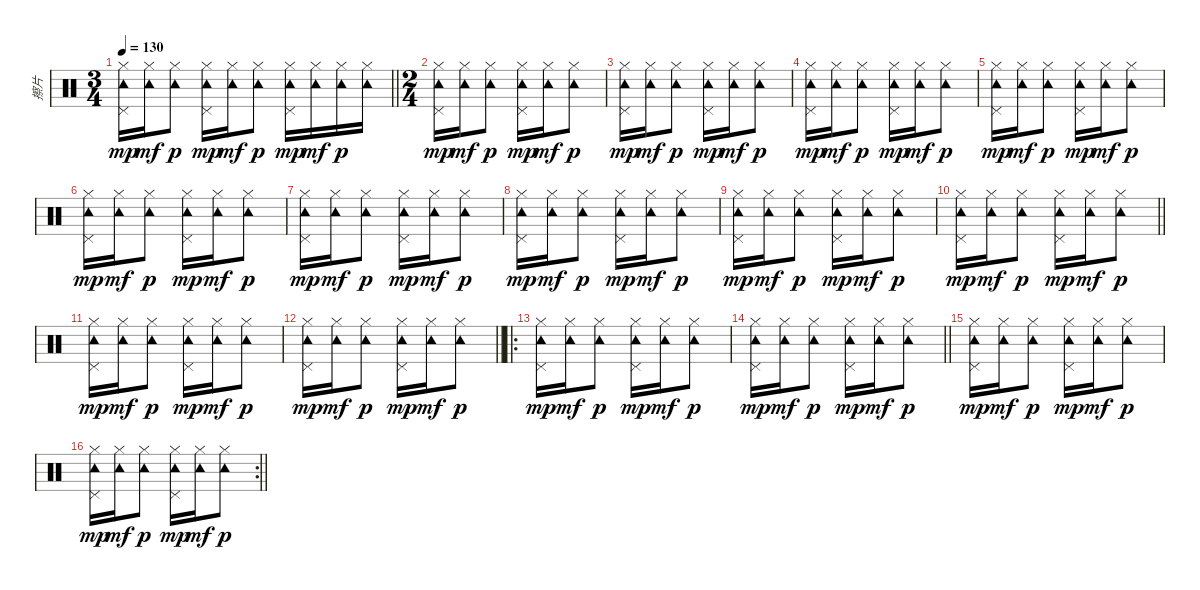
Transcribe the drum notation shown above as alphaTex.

\track ("擦片" "擦片") {instrument percussion}
\staff {score}
\articulation defaults
\ts (3 4)
\tempo 130
\clef neutral
\barLineRight lightlight
\ks c
("Hi-Hat (closed)" "Tambourine (hit)" "Pedal Hi-Hat (hit)").16{dy mp} ("Hi-Hat (closed)" "Tambourine (hit)").16{dy mf} ("Hi-Hat (closed)" "Tambourine (hit)").8{dy p} ("Hi-Hat (closed)" "Tambourine (hit)" "Pedal Hi-Hat (hit)").16{dy mp} ("Hi-Hat (closed)" "Tambourine (hit)").16{dy mf} ("Hi-Hat (closed)" "Tambourine (hit)").8{dy p} ("Hi-Hat (closed)" "Tambourine (hit)" "Pedal Hi-Hat (hit)").16{dy mp} ("Hi-Hat (closed)" "Tambourine (hit)").16{dy mf} ("Hi-Hat (closed)" "Tambourine (hit)").16{dy p} ("Hi-Hat (closed)" "Tambourine (hit)").16 |
\ts (2 4)
("Hi-Hat (closed)" "Tambourine (hit)" "Pedal Hi-Hat (hit)").16{dy mp} ("Hi-Hat (closed)" "Tambourine (hit)").16{dy mf} ("Hi-Hat (closed)" "Tambourine (hit)").8{dy p} ("Hi-Hat (closed)" "Tambourine (hit)" "Pedal Hi-Hat (hit)").16{dy mp} ("Hi-Hat (closed)" "Tambourine (hit)").16{dy mf} ("Hi-Hat (closed)" "Tambourine (hit)").8{dy p} |
("Hi-Hat (closed)" "Tambourine (hit)" "Pedal Hi-Hat (hit)").16{dy mp} ("Hi-Hat (closed)" "Tambourine (hit)").16{dy mf} ("Hi-Hat (closed)" "Tambourine (hit)").8{dy p} ("Hi-Hat (closed)" "Tambourine (hit)" "Pedal Hi-Hat (hit)").16{dy mp} ("Hi-Hat (closed)" "Tambourine (hit)").16{dy mf} ("Hi-Hat (closed)" "Tambourine (hit)").8{dy p} |
("Hi-Hat (closed)" "Tambourine (hit)" "Pedal Hi-Hat (hit)").16{dy mp} ("Hi-Hat (closed)" "Tambourine (hit)").16{dy mf} ("Hi-Hat (closed)" "Tambourine (hit)").8{dy p} ("Hi-Hat (closed)" "Tambourine (hit)" "Pedal Hi-Hat (hit)").16{dy mp} ("Hi-Hat (closed)" "Tambourine (hit)").16{dy mf} ("Hi-Hat (closed)" "Tambourine (hit)").8{dy p} |
("Hi-Hat (closed)" "Tambourine (hit)" "Pedal Hi-Hat (hit)").16{dy mp} ("Hi-Hat (closed)" "Tambourine (hit)").16{dy mf} ("Hi-Hat (closed)" "Tambourine (hit)").8{dy p} ("Hi-Hat (closed)" "Tambourine (hit)" "Pedal Hi-Hat (hit)").16{dy mp} ("Hi-Hat (closed)" "Tambourine (hit)").16{dy mf} ("Hi-Hat (closed)" "Tambourine (hit)").8{dy p} |
("Hi-Hat (closed)" "Tambourine (hit)" "Pedal Hi-Hat (hit)").16{dy mp} ("Hi-Hat (closed)" "Tambourine (hit)").16{dy mf} ("Hi-Hat (closed)" "Tambourine (hit)").8{dy p} ("Hi-Hat (closed)" "Tambourine (hit)" "Pedal Hi-Hat (hit)").16{dy mp} ("Hi-Hat (closed)" "Tambourine (hit)").16{dy mf} ("Hi-Hat (closed)" "Tambourine (hit)").8{dy p} |
("Hi-Hat (closed)" "Tambourine (hit)" "Pedal Hi-Hat (hit)").16{dy mp} ("Hi-Hat (closed)" "Tambourine (hit)").16{dy mf} ("Hi-Hat (closed)" "Tambourine (hit)").8{dy p} ("Hi-Hat (closed)" "Tambourine (hit)" "Pedal Hi-Hat (hit)").16{dy mp} ("Hi-Hat (closed)" "Tambourine (hit)").16{dy mf} ("Hi-Hat (closed)" "Tambourine (hit)").8{dy p} |
("Hi-Hat (closed)" "Tambourine (hit)" "Pedal Hi-Hat (hit)").16{dy mp} ("Hi-Hat (closed)" "Tambourine (hit)").16{dy mf} ("Hi-Hat (closed)" "Tambourine (hit)").8{dy p} ("Hi-Hat (closed)" "Tambourine (hit)" "Pedal Hi-Hat (hit)").16{dy mp} ("Hi-Hat (closed)" "Tambourine (hit)").16{dy mf} ("Hi-Hat (closed)" "Tambourine (hit)").8{dy p} |
("Hi-Hat (closed)" "Tambourine (hit)" "Pedal Hi-Hat (hit)").16{dy mp} ("Hi-Hat (closed)" "Tambourine (hit)").16{dy mf} ("Hi-Hat (closed)" "Tambourine (hit)").8{dy p} ("Hi-Hat (closed)" "Tambourine (hit)" "Pedal Hi-Hat (hit)").16{dy mp} ("Hi-Hat (closed)" "Tambourine (hit)").16{dy mf} ("Hi-Hat (closed)" "Tambourine (hit)").8{dy p} |
\barLineRight lightlight
("Hi-Hat (closed)" "Tambourine (hit)" "Pedal Hi-Hat (hit)").16{dy mp} ("Hi-Hat (closed)" "Tambourine (hit)").16{dy mf} ("Hi-Hat (closed)" "Tambourine (hit)").8{dy p} ("Hi-Hat (closed)" "Tambourine (hit)" "Pedal Hi-Hat (hit)").16{dy mp} ("Hi-Hat (closed)" "Tambourine (hit)").16{dy mf} ("Hi-Hat (closed)" "Tambourine (hit)").8{dy p} |
("Hi-Hat (closed)" "Tambourine (hit)" "Pedal Hi-Hat (hit)").16{dy mp} ("Hi-Hat (closed)" "Tambourine (hit)").16{dy mf} ("Hi-Hat (closed)" "Tambourine (hit)").8{dy p} ("Hi-Hat (closed)" "Tambourine (hit)" "Pedal Hi-Hat (hit)").16{dy mp} ("Hi-Hat (closed)" "Tambourine (hit)").16{dy mf} ("Hi-Hat (closed)" "Tambourine (hit)").8{dy p} |
\barLineRight lightlight
("Hi-Hat (closed)" "Tambourine (hit)" "Pedal Hi-Hat (hit)").16{dy mp} ("Hi-Hat (closed)" "Tambourine (hit)").16{dy mf} ("Hi-Hat (closed)" "Tambourine (hit)").8{dy p} ("Hi-Hat (closed)" "Tambourine (hit)" "Pedal Hi-Hat (hit)").16{dy mp} ("Hi-Hat (closed)" "Tambourine (hit)").16{dy mf} ("Hi-Hat (closed)" "Tambourine (hit)").8{dy p} |
\ro
("Hi-Hat (closed)" "Tambourine (hit)" "Pedal Hi-Hat (hit)").16{dy mp} ("Hi-Hat (closed)" "Tambourine (hit)").16{dy mf} ("Hi-Hat (closed)" "Tambourine (hit)").8{dy p} ("Hi-Hat (closed)" "Tambourine (hit)" "Pedal Hi-Hat (hit)").16{dy mp} ("Hi-Hat (closed)" "Tambourine (hit)").16{dy mf} ("Hi-Hat (closed)" "Tambourine (hit)").8{dy p} |
\barLineRight lightlight
("Hi-Hat (closed)" "Tambourine (hit)" "Pedal Hi-Hat (hit)").16{dy mp} ("Hi-Hat (closed)" "Tambourine (hit)").16{dy mf} ("Hi-Hat (closed)" "Tambourine (hit)").8{dy p} ("Hi-Hat (closed)" "Tambourine (hit)" "Pedal Hi-Hat (hit)").16{dy mp} ("Hi-Hat (closed)" "Tambourine (hit)").16{dy mf} ("Hi-Hat (closed)" "Tambourine (hit)").8{dy p} |
("Hi-Hat (closed)" "Tambourine (hit)" "Pedal Hi-Hat (hit)").16{dy mp} ("Hi-Hat (closed)" "Tambourine (hit)").16{dy mf} ("Hi-Hat (closed)" "Tambourine (hit)").8{dy p} ("Hi-Hat (closed)" "Tambourine (hit)" "Pedal Hi-Hat (hit)").16{dy mp} ("Hi-Hat (closed)" "Tambourine (hit)").16{dy mf} ("Hi-Hat (closed)" "Tambourine (hit)").8{dy p} |
\rc 2
\barLineRight lightlight
("Hi-Hat (closed)" "Tambourine (hit)" "Pedal Hi-Hat (hit)").16{dy mp} ("Hi-Hat (closed)" "Tambourine (hit)").16{dy mf} ("Hi-Hat (closed)" "Tambourine (hit)").8{dy p} ("Hi-Hat (closed)" "Tambourine (hit)" "Pedal Hi-Hat (hit)").16{dy mp} ("Hi-Hat (closed)" "Tambourine (hit)").16{dy mf} ("Hi-Hat (closed)" "Tambourine (hit)").8{dy p}
